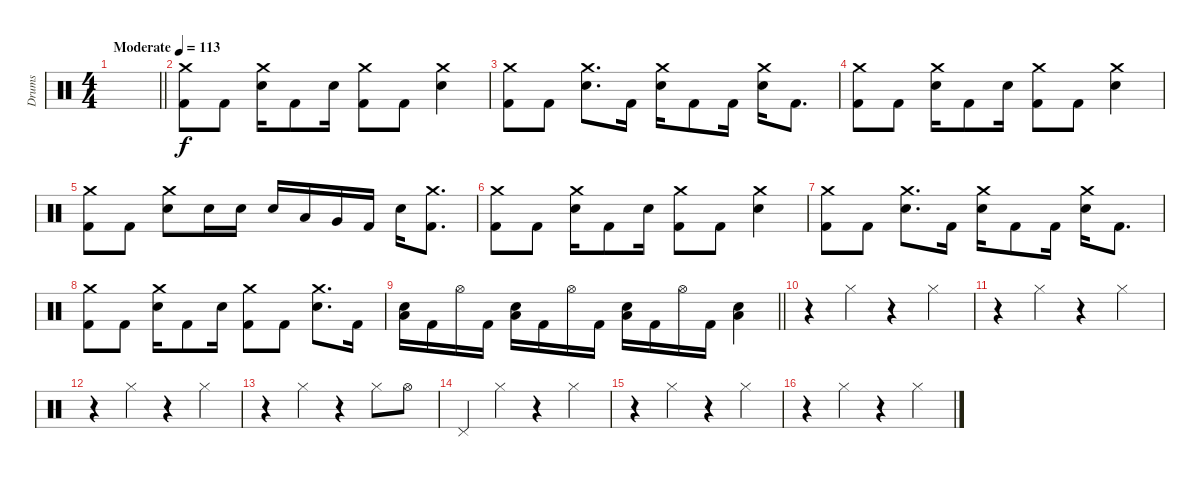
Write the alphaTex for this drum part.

\track ("Drums" "Drums") {instrument percussion}
\staff {score}
\articulation defaults
\ts (4 4)
\tempo (113 "Moderate")
\clef neutral
\barLineRight lightlight
\ks c
|
\section ("" "")
("Crash medium (hit)" "Kick (hit) 2").8 "Kick (hit) 2".8 ("Crash medium (hit)" "Electric Snare (hit)").16 "Kick (hit) 2".8 "Electric Snare (hit)".16 ("Crash medium (hit)" "Kick (hit) 2").8 "Kick (hit) 2".8 ("Crash medium (hit)" "Electric Snare (hit)").4 |
("Crash medium (hit)" "Kick (hit) 2").8 "Kick (hit) 2".8 ("Crash medium (hit)" "Electric Snare (hit)").8{d} "Kick (hit) 2".16 ("Crash medium (hit)" "Electric Snare (hit)").16 "Kick (hit) 2".8 "Kick (hit) 2".16 ("Crash medium (hit)" "Electric Snare (hit)").16 "Kick (hit) 2".8{d} |
("Crash medium (hit)" "Kick (hit) 2").8 "Kick (hit) 2".8 ("Crash medium (hit)" "Electric Snare (hit)").16 "Kick (hit) 2".8 "Electric Snare (hit)".16 ("Crash medium (hit)" "Kick (hit) 2").8 "Kick (hit) 2".8 ("Crash medium (hit)" "Electric Snare (hit)").4 |
("Crash medium (hit)" "Kick (hit) 2").8 "Kick (hit) 2".8 ("Crash medium (hit)" "Electric Snare (hit)").8 "Electric Snare (hit)".16 "Electric Snare (hit)".16 "Electric Snare (hit)".16 "Low Tom (hit)".16 "Very Low Tom (hit)".16 "Kick (hit) 2".16 "Electric Snare (hit)".16 ("Crash medium (hit)" "Kick (hit) 2").8{d} |
("Crash medium (hit)" "Kick (hit) 2").8 "Kick (hit) 2".8 ("Crash medium (hit)" "Electric Snare (hit)").16 "Kick (hit) 2".8 "Electric Snare (hit)".16 ("Crash medium (hit)" "Kick (hit) 2").8 "Kick (hit) 2".8 ("Crash medium (hit)" "Electric Snare (hit)").4 |
("Crash medium (hit)" "Kick (hit) 2").8 "Kick (hit) 2".8 ("Crash medium (hit)" "Electric Snare (hit)").8{d} "Kick (hit) 2".16 ("Crash medium (hit)" "Electric Snare (hit)").16 "Kick (hit) 2".8 "Kick (hit) 2".16 ("Crash medium (hit)" "Electric Snare (hit)").16 "Kick (hit) 2".8{d} |
("Crash medium (hit)" "Kick (hit) 2").8 "Kick (hit) 2".8 ("Crash medium (hit)" "Electric Snare (hit)").16 "Kick (hit) 2".8 "Electric Snare (hit)".16 ("Crash medium (hit)" "Kick (hit) 2").8 "Kick (hit) 2".8 ("Crash medium (hit)" "Electric Snare (hit)").8{d} "Kick (hit) 2".16 |
\barLineRight lightlight
("Low Floor Tom (hit)" "Electric Snare (hit)").16 "Kick (hit) 2".16 "Hi-Hat (open)".16 "Kick (hit) 2".16 ("Low Floor Tom (hit)" "Electric Snare (hit)").16 "Kick (hit) 2".16 "Hi-Hat (open)".16 "Kick (hit) 2".16 ("Low Floor Tom (hit)" "Electric Snare (hit)").16 "Kick (hit) 2".16 "Hi-Hat (open)".16 "Kick (hit) 2".16 ("Low Floor Tom (hit)" "Electric Snare (hit)").4 |
\section ("" "")
r.4 "Hi-Hat (closed)".4 r.4 "Hi-Hat (closed)".4 |
r.4 "Hi-Hat (closed)".4 r.4 "Hi-Hat (closed)".4 |
r.4 "Hi-Hat (closed)".4 r.4 "Hi-Hat (closed)".4 |
r.4 "Hi-Hat (closed)".4 r.4 "Hi-Hat (closed)".8 "Hi-Hat (open)".8 |
"Pedal Hi-Hat (hit)".4 "Hi-Hat (closed)".4 r.4 "Hi-Hat (closed)".4 |
r.4 "Hi-Hat (closed)".4 r.4 "Hi-Hat (closed)".4 |
r.4 "Hi-Hat (closed)".4 r.4 "Hi-Hat (closed)".4
